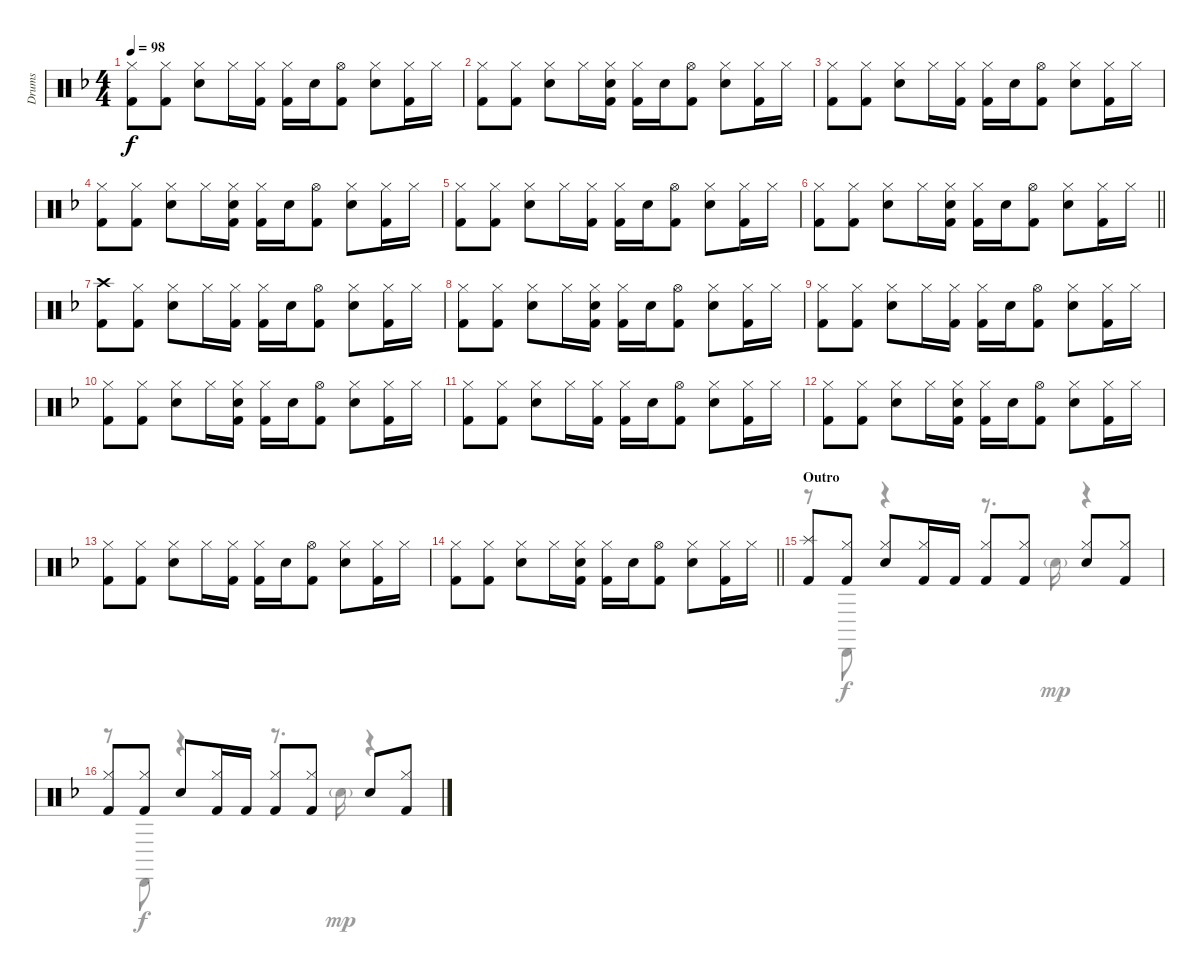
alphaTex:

\track ("Drums" "Drums") {instrument percussion}
\staff {score}
\articulation defaults
\voice
\ts (4 4)
\tempo 98
\clef neutral
\ks f
("Hi-Hat (closed)" "Kick (hit) 2").8{dy f} ("Hi-Hat (closed)" "Kick (hit) 2").8 ("Hi-Hat (closed)" "Electric Snare (hit)").8 "Hi-Hat (closed)".16 ("Hi-Hat (closed)" "Kick (hit) 2").16 ("Hi-Hat (closed)" "Kick (hit) 2").16 "Electric Snare (hit)".16 ("Hi-Hat (open)" "Kick (hit) 2").8 ("Hi-Hat (closed)" "Electric Snare (hit)").8 ("Hi-Hat (closed)" "Kick (hit) 2").16 "Hi-Hat (closed)".16 |
("Hi-Hat (closed)" "Kick (hit) 2").8 ("Hi-Hat (closed)" "Kick (hit) 2").8 ("Hi-Hat (closed)" "Electric Snare (hit)").8 "Hi-Hat (closed)".16 ("Hi-Hat (closed)" "Electric Snare (hit)" "Kick (hit) 2").16 ("Hi-Hat (closed)" "Kick (hit) 2").16 "Electric Snare (hit)".16 ("Hi-Hat (open)" "Kick (hit) 2").8 ("Hi-Hat (closed)" "Electric Snare (hit)").8 ("Hi-Hat (closed)" "Kick (hit) 2").16 "Hi-Hat (closed)".16 |
("Hi-Hat (closed)" "Kick (hit) 2").8 ("Hi-Hat (closed)" "Kick (hit) 2").8 ("Hi-Hat (closed)" "Electric Snare (hit)").8 "Hi-Hat (closed)".16 ("Hi-Hat (closed)" "Kick (hit) 2").16 ("Hi-Hat (closed)" "Kick (hit) 2").16 "Electric Snare (hit)".16 ("Hi-Hat (open)" "Kick (hit) 2").8 ("Hi-Hat (closed)" "Electric Snare (hit)").8 ("Hi-Hat (closed)" "Kick (hit) 2").16 "Hi-Hat (closed)".16 |
("Hi-Hat (closed)" "Kick (hit) 2").8 ("Hi-Hat (closed)" "Kick (hit) 2").8 ("Hi-Hat (closed)" "Electric Snare (hit)").8 "Hi-Hat (closed)".16 ("Hi-Hat (closed)" "Electric Snare (hit)" "Kick (hit) 2").16 ("Hi-Hat (closed)" "Kick (hit) 2").16 "Electric Snare (hit)".16 ("Hi-Hat (open)" "Kick (hit) 2").8 ("Hi-Hat (closed)" "Electric Snare (hit)").8 ("Hi-Hat (closed)" "Kick (hit) 2").16 "Hi-Hat (closed)".16 |
("Hi-Hat (closed)" "Kick (hit) 2").8 ("Hi-Hat (closed)" "Kick (hit) 2").8 ("Hi-Hat (closed)" "Electric Snare (hit)").8 "Hi-Hat (closed)".16 ("Hi-Hat (closed)" "Kick (hit) 2").16 ("Hi-Hat (closed)" "Kick (hit) 2").16 "Electric Snare (hit)".16 ("Hi-Hat (open)" "Kick (hit) 2").8 ("Hi-Hat (closed)" "Electric Snare (hit)").8 ("Hi-Hat (closed)" "Kick (hit) 2").16 "Hi-Hat (closed)".16 |
\barLineRight lightlight
("Hi-Hat (closed)" "Kick (hit) 2").8 ("Hi-Hat (closed)" "Kick (hit) 2").8 ("Hi-Hat (closed)" "Electric Snare (hit)").8 "Hi-Hat (closed)".16 ("Hi-Hat (closed)" "Electric Snare (hit)" "Kick (hit) 2").16 ("Hi-Hat (closed)" "Kick (hit) 2").16 "Electric Snare (hit)".16 ("Hi-Hat (open)" "Kick (hit) 2").8 ("Hi-Hat (closed)" "Electric Snare (hit)").8 ("Hi-Hat (closed)" "Kick (hit) 2").16 "Hi-Hat (closed)".16 |
\section ("" "")
("Crash high (hit)" "Kick (hit) 2").8 ("Hi-Hat (closed)" "Kick (hit) 2").8 ("Hi-Hat (closed)" "Electric Snare (hit)").8 "Hi-Hat (closed)".16 ("Hi-Hat (closed)" "Kick (hit) 2").16 ("Hi-Hat (closed)" "Kick (hit) 2").16 "Electric Snare (hit)".16 ("Hi-Hat (open)" "Kick (hit) 2").8 ("Hi-Hat (closed)" "Electric Snare (hit)").8 ("Hi-Hat (closed)" "Kick (hit) 2").16 "Hi-Hat (closed)".16 |
("Hi-Hat (closed)" "Kick (hit) 2").8 ("Hi-Hat (closed)" "Kick (hit) 2").8 ("Hi-Hat (closed)" "Electric Snare (hit)").8 "Hi-Hat (closed)".16 ("Hi-Hat (closed)" "Electric Snare (hit)" "Kick (hit) 2").16 ("Hi-Hat (closed)" "Kick (hit) 2").16 "Electric Snare (hit)".16 ("Hi-Hat (open)" "Kick (hit) 2").8 ("Hi-Hat (closed)" "Electric Snare (hit)").8 ("Hi-Hat (closed)" "Kick (hit) 2").16 "Hi-Hat (closed)".16 |
("Hi-Hat (closed)" "Kick (hit) 2").8 ("Hi-Hat (closed)" "Kick (hit) 2").8 ("Hi-Hat (closed)" "Electric Snare (hit)").8 "Hi-Hat (closed)".16 ("Hi-Hat (closed)" "Kick (hit) 2").16 ("Hi-Hat (closed)" "Kick (hit) 2").16 "Electric Snare (hit)".16 ("Hi-Hat (open)" "Kick (hit) 2").8 ("Hi-Hat (closed)" "Electric Snare (hit)").8 ("Hi-Hat (closed)" "Kick (hit) 2").16 "Hi-Hat (closed)".16 |
("Hi-Hat (closed)" "Kick (hit) 2").8 ("Hi-Hat (closed)" "Kick (hit) 2").8 ("Hi-Hat (closed)" "Electric Snare (hit)").8 "Hi-Hat (closed)".16 ("Hi-Hat (closed)" "Electric Snare (hit)" "Kick (hit) 2").16 ("Hi-Hat (closed)" "Kick (hit) 2").16 "Electric Snare (hit)".16 ("Hi-Hat (open)" "Kick (hit) 2").8 ("Hi-Hat (closed)" "Electric Snare (hit)").8 ("Hi-Hat (closed)" "Kick (hit) 2").16 "Hi-Hat (closed)".16 |
("Hi-Hat (closed)" "Kick (hit) 2").8 ("Hi-Hat (closed)" "Kick (hit) 2").8 ("Hi-Hat (closed)" "Electric Snare (hit)").8 "Hi-Hat (closed)".16 ("Hi-Hat (closed)" "Kick (hit) 2").16 ("Hi-Hat (closed)" "Kick (hit) 2").16 "Electric Snare (hit)".16 ("Hi-Hat (open)" "Kick (hit) 2").8 ("Hi-Hat (closed)" "Electric Snare (hit)").8 ("Hi-Hat (closed)" "Kick (hit) 2").16 "Hi-Hat (closed)".16 |
("Hi-Hat (closed)" "Kick (hit) 2").8 ("Hi-Hat (closed)" "Kick (hit) 2").8 ("Hi-Hat (closed)" "Electric Snare (hit)").8 "Hi-Hat (closed)".16 ("Hi-Hat (closed)" "Electric Snare (hit)" "Kick (hit) 2").16 ("Hi-Hat (closed)" "Kick (hit) 2").16 "Electric Snare (hit)".16 ("Hi-Hat (open)" "Kick (hit) 2").8 ("Hi-Hat (closed)" "Electric Snare (hit)").8 ("Hi-Hat (closed)" "Kick (hit) 2").16 "Hi-Hat (closed)".16 |
("Hi-Hat (closed)" "Kick (hit) 2").8 ("Hi-Hat (closed)" "Kick (hit) 2").8 ("Hi-Hat (closed)" "Electric Snare (hit)").8 "Hi-Hat (closed)".16 ("Hi-Hat (closed)" "Kick (hit) 2").16 ("Hi-Hat (closed)" "Kick (hit) 2").16 "Electric Snare (hit)".16 ("Hi-Hat (open)" "Kick (hit) 2").8 ("Hi-Hat (closed)" "Electric Snare (hit)").8 ("Hi-Hat (closed)" "Kick (hit) 2").16 "Hi-Hat (closed)".16 |
\barLineRight lightlight
("Hi-Hat (closed)" "Kick (hit) 2").8 ("Hi-Hat (closed)" "Kick (hit) 2").8 ("Hi-Hat (closed)" "Electric Snare (hit)").8 "Hi-Hat (closed)".16 ("Hi-Hat (closed)" "Electric Snare (hit)" "Kick (hit) 2").16 ("Hi-Hat (closed)" "Kick (hit) 2").16 "Electric Snare (hit)".16 ("Hi-Hat (open)" "Kick (hit) 2").8 ("Hi-Hat (closed)" "Electric Snare (hit)").8 ("Hi-Hat (closed)" "Kick (hit) 2").16 "Hi-Hat (closed)".16 |
\section ("" "Outro")
("Splash (hit)" "Kick (hit) 2").8 ("Hi-Hat (closed)" "Kick (hit) 2").8 ("Hi-Hat (closed)" "Electric Snare (hit)").8 ("Hi-Hat (closed)" "Kick (hit) 2").16 "Kick (hit) 2".16 ("Hi-Hat (closed)" "Kick (hit) 2").8 ("Hi-Hat (closed)" "Kick (hit) 2").8 ("Hi-Hat (closed)" "Electric Snare (hit)").8 ("Hi-Hat (closed)" "Kick (hit) 2").8 |
("Hi-Hat (closed)" "Kick (hit) 2").8 ("Hi-Hat (closed)" "Kick (hit) 2").8 "Electric Snare (hit)".8 ("Hi-Hat (closed)" "Kick (hit) 2").16 "Kick (hit) 2".16 ("Hi-Hat (closed)" "Kick (hit) 2").8 ("Hi-Hat (closed)" "Kick (hit) 2").8 "Electric Snare (hit)".8 ("Hi-Hat (closed)" "Kick (hit) 2").8
\voice
\clef neutral
\ottava regular
\simile none
\ks f
|
|
|
|
|
\barLineRight lightlight
|
|
|
|
|
|
|
|
\barLineRight lightlight
|
r.8 "Cabasa (hit)".8{dy f} r.4 r.8{d} "Metronome (bell)"{g}.16{dy mp} r.4 |
r.8 "Cabasa (hit)".8{dy f} r.4 r.8{d} "Metronome (bell)"{g}.16{dy mp} r.4
